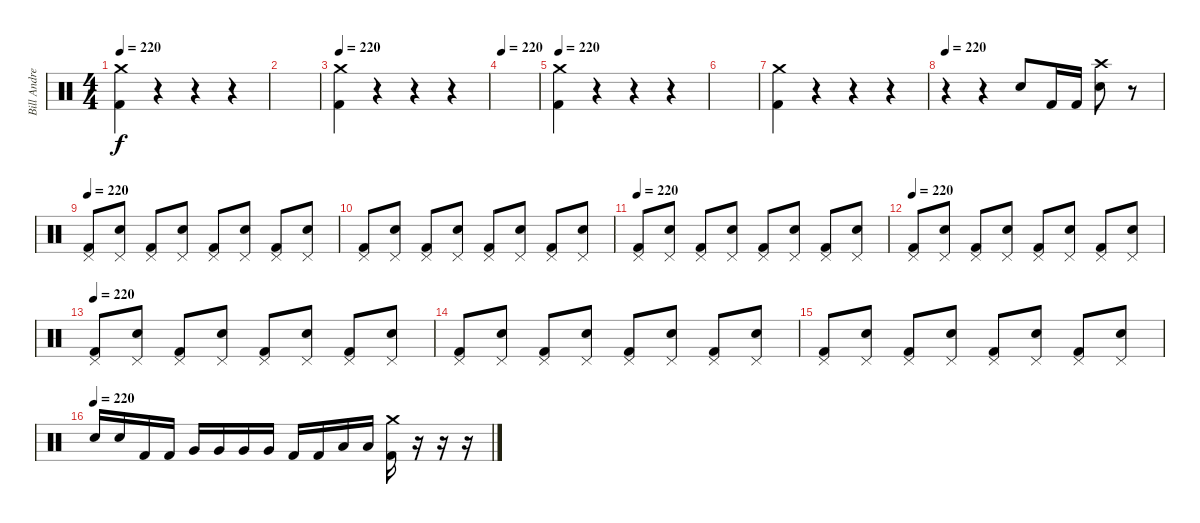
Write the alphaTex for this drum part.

\track ("Bill Andrews" "Bill Andre") {instrument percussion}
\staff {score}
\articulation defaults
\ts (4 4)
\tempo 220
\clef neutral
\ks c
("Kick (hit) 2" "Crash medium (hit)").4{dy f} r.4 r.4 r.4 |
|
\tempo 220
("Kick (hit) 2" "Crash medium (hit)").4 r.4 r.4 r.4 |
\tempo 220
|
\tempo 220
("Kick (hit) 2" "Crash medium (hit)").4 r.4 r.4 r.4 |
|
("Kick (hit) 2" "Crash medium (hit)").4 r.4 r.4 r.4 |
\tempo 220
r.4 r.4 "Snare (hit) 2".8 "Kick (hit) 2".16 "Kick (hit) 2".16 ("Crash high (hit)" "Snare (hit) 2").8 r.8 |
\tempo 220
("Pedal Hi-Hat (hit)" "Kick (hit) 2").8 ("Pedal Hi-Hat (hit)" "Snare (hit) 2").8 ("Pedal Hi-Hat (hit)" "Kick (hit) 2").8 ("Pedal Hi-Hat (hit)" "Snare (hit) 2").8 ("Pedal Hi-Hat (hit)" "Kick (hit) 2").8 ("Pedal Hi-Hat (hit)" "Snare (hit) 2").8 ("Pedal Hi-Hat (hit)" "Kick (hit) 2").8 ("Pedal Hi-Hat (hit)" "Snare (hit) 2").8 |
("Pedal Hi-Hat (hit)" "Kick (hit) 2").8 ("Pedal Hi-Hat (hit)" "Snare (hit) 2").8 ("Pedal Hi-Hat (hit)" "Kick (hit) 2").8 ("Pedal Hi-Hat (hit)" "Snare (hit) 2").8 ("Pedal Hi-Hat (hit)" "Kick (hit) 2").8 ("Pedal Hi-Hat (hit)" "Snare (hit) 2").8 ("Pedal Hi-Hat (hit)" "Kick (hit) 2").8 ("Pedal Hi-Hat (hit)" "Snare (hit) 2").8 |
\tempo 220
("Pedal Hi-Hat (hit)" "Kick (hit) 2").8 ("Pedal Hi-Hat (hit)" "Snare (hit) 2").8 ("Pedal Hi-Hat (hit)" "Kick (hit) 2").8 ("Pedal Hi-Hat (hit)" "Snare (hit) 2").8 ("Pedal Hi-Hat (hit)" "Kick (hit) 2").8 ("Pedal Hi-Hat (hit)" "Snare (hit) 2").8 ("Pedal Hi-Hat (hit)" "Kick (hit) 2").8 ("Pedal Hi-Hat (hit)" "Snare (hit) 2").8 |
\tempo 220
("Pedal Hi-Hat (hit)" "Kick (hit) 2").8 ("Pedal Hi-Hat (hit)" "Snare (hit) 2").8 ("Pedal Hi-Hat (hit)" "Kick (hit) 2").8 ("Pedal Hi-Hat (hit)" "Snare (hit) 2").8 ("Pedal Hi-Hat (hit)" "Kick (hit) 2").8 ("Pedal Hi-Hat (hit)" "Snare (hit) 2").8 ("Pedal Hi-Hat (hit)" "Kick (hit) 2").8 ("Pedal Hi-Hat (hit)" "Snare (hit) 2").8 |
\tempo 220
("Pedal Hi-Hat (hit)" "Kick (hit) 2").8 ("Pedal Hi-Hat (hit)" "Snare (hit) 2").8 ("Pedal Hi-Hat (hit)" "Kick (hit) 2").8 ("Pedal Hi-Hat (hit)" "Snare (hit) 2").8 ("Pedal Hi-Hat (hit)" "Kick (hit) 2").8 ("Pedal Hi-Hat (hit)" "Snare (hit) 2").8 ("Pedal Hi-Hat (hit)" "Kick (hit) 2").8 ("Pedal Hi-Hat (hit)" "Snare (hit) 2").8 |
("Pedal Hi-Hat (hit)" "Kick (hit) 2").8 ("Pedal Hi-Hat (hit)" "Snare (hit) 2").8 ("Pedal Hi-Hat (hit)" "Kick (hit) 2").8 ("Pedal Hi-Hat (hit)" "Snare (hit) 2").8 ("Pedal Hi-Hat (hit)" "Kick (hit) 2").8 ("Pedal Hi-Hat (hit)" "Snare (hit) 2").8 ("Pedal Hi-Hat (hit)" "Kick (hit) 2").8 ("Pedal Hi-Hat (hit)" "Snare (hit) 2").8 |
("Pedal Hi-Hat (hit)" "Kick (hit) 2").8 ("Pedal Hi-Hat (hit)" "Snare (hit) 2").8 ("Pedal Hi-Hat (hit)" "Kick (hit) 2").8 ("Pedal Hi-Hat (hit)" "Snare (hit) 2").8 ("Pedal Hi-Hat (hit)" "Kick (hit) 2").8 ("Pedal Hi-Hat (hit)" "Snare (hit) 2").8 ("Pedal Hi-Hat (hit)" "Kick (hit) 2").8 ("Pedal Hi-Hat (hit)" "Snare (hit) 2").8 |
\tempo (220)
"Snare (hit) 2".16 "Snare (hit) 2".16 "Kick (hit) 2".16 "Kick (hit) 2".16 "Very Low Tom (hit)".16 "Very Low Tom (hit)".16 "Very Low Tom (hit)".16 "Very Low Tom (hit)".16 "Kick (hit) 2".16 "Kick (hit) 2".16 "Low Floor Tom (hit)".16 "Low Floor Tom (hit)".16 ("Kick (hit) 2" "Crash medium (hit)").16 r.16 r.16 r.16
